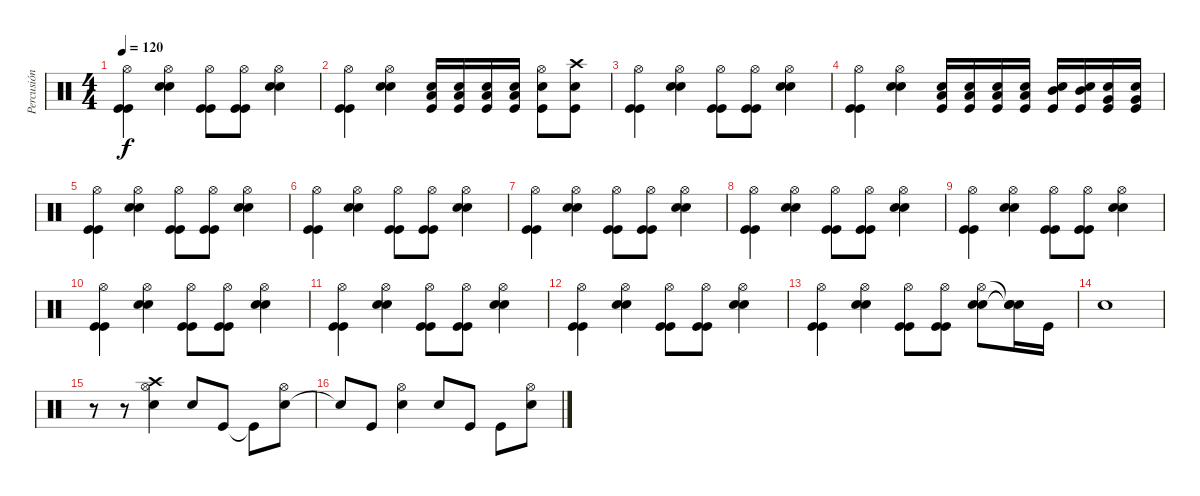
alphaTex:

\track ("Percusión" "Percusión") {instrument percussion}
\staff {score}
\articulation defaults
\ts (4 4)
\tempo 120
\clef neutral
\ks c
("Kick (hit)" "Kick (hit)" "Hi-Hat (open)").4{dy f} ("Electric Snare (hit)" "Snare (hit) 2" "Hi-Hat (open)").4 ("Kick (hit)" "Kick (hit)" "Hi-Hat (open)").8 ("Kick (hit)" "Kick (hit)" "Hi-Hat (open)").8 ("Electric Snare (hit)" "Snare (hit) 2" "Hi-Hat (open)").4 |
("Kick (hit)" "Kick (hit)" "Hi-Hat (open)").4 ("Electric Snare (hit)" "Snare (hit) 2" "Hi-Hat (open)").4 ("Kick (hit)" "Low Tom (hit)" "Snare (hit) 2").16 ("Kick (hit)" "Low Tom (hit)" "Snare (hit) 2").16 ("Kick (hit)" "Low Tom (hit)" "Snare (hit) 2").16 ("Kick (hit)" "Low Tom (hit)" "Snare (hit) 2").16 ("Electric Snare (hit)" "Kick (hit)" "Hi-Hat (open)").8 ("Electric Snare (hit)" "Kick (hit)" "Crash high (hit)").8 |
("Kick (hit)" "Kick (hit)" "Hi-Hat (open)").4 ("Electric Snare (hit)" "Snare (hit) 2" "Hi-Hat (open)").4 ("Kick (hit)" "Kick (hit)" "Hi-Hat (open)").8 ("Kick (hit)" "Kick (hit)" "Hi-Hat (open)").8 ("Electric Snare (hit)" "Snare (hit) 2" "Hi-Hat (open)").4 |
("Kick (hit)" "Kick (hit)" "Hi-Hat (open)").4 ("Electric Snare (hit)" "Snare (hit) 2" "Hi-Hat (open)").4 ("Kick (hit)" "Low Tom (hit)" "Snare (hit) 2").16 ("Kick (hit)" "Low Tom (hit)" "Snare (hit) 2").16 ("Kick (hit)" "Low Tom (hit)" "Snare (hit) 2").16 ("Kick (hit)" "Low Tom (hit)" "Snare (hit) 2").16 ("Kick (hit)" "Mid Tom (hit)" "Snare (hit) 2").16 ("Kick (hit)" "Mid Tom (hit)" "Snare (hit) 2").16 ("Kick (hit)" "Very Low Tom (hit)" "Snare (hit) 2").16 ("Kick (hit)" "Very Low Tom (hit)" "Snare (hit) 2").16 |
("Kick (hit)" "Kick (hit)" "Hi-Hat (open)").4{volume 12} ("Electric Snare (hit)" "Snare (hit) 2" "Hi-Hat (open)").4 ("Kick (hit)" "Kick (hit)" "Hi-Hat (open)").8 ("Kick (hit)" "Kick (hit)" "Hi-Hat (open)").8 ("Electric Snare (hit)" "Snare (hit) 2" "Hi-Hat (open)").4 |
("Kick (hit)" "Kick (hit)" "Hi-Hat (open)").4 ("Electric Snare (hit)" "Snare (hit) 2" "Hi-Hat (open)").4 ("Kick (hit)" "Kick (hit)" "Hi-Hat (open)").8 ("Kick (hit)" "Kick (hit)" "Hi-Hat (open)").8 ("Electric Snare (hit)" "Snare (hit) 2" "Hi-Hat (open)").4 |
("Kick (hit)" "Kick (hit)" "Hi-Hat (open)").4 ("Electric Snare (hit)" "Snare (hit) 2" "Hi-Hat (open)").4 ("Kick (hit)" "Kick (hit)" "Hi-Hat (open)").8 ("Kick (hit)" "Kick (hit)" "Hi-Hat (open)").8 ("Electric Snare (hit)" "Snare (hit) 2" "Hi-Hat (open)").4 |
("Kick (hit)" "Kick (hit)" "Hi-Hat (open)").4 ("Electric Snare (hit)" "Snare (hit) 2" "Hi-Hat (open)").4 ("Kick (hit)" "Kick (hit)" "Hi-Hat (open)").8 ("Kick (hit)" "Kick (hit)" "Hi-Hat (open)").8 ("Electric Snare (hit)" "Snare (hit) 2" "Hi-Hat (open)").4 |
("Kick (hit)" "Kick (hit)" "Hi-Hat (open)").4 ("Electric Snare (hit)" "Snare (hit) 2" "Hi-Hat (open)").4 ("Kick (hit)" "Kick (hit)" "Hi-Hat (open)").8 ("Kick (hit)" "Kick (hit)" "Hi-Hat (open)").8 ("Electric Snare (hit)" "Snare (hit) 2" "Hi-Hat (open)").4 |
("Kick (hit)" "Kick (hit)" "Hi-Hat (open)").4 ("Electric Snare (hit)" "Snare (hit) 2" "Hi-Hat (open)").4 ("Kick (hit)" "Kick (hit)" "Hi-Hat (open)").8 ("Kick (hit)" "Kick (hit)" "Hi-Hat (open)").8 ("Electric Snare (hit)" "Snare (hit) 2" "Hi-Hat (open)").4 |
("Kick (hit)" "Kick (hit)" "Hi-Hat (open)").4 ("Electric Snare (hit)" "Snare (hit) 2" "Hi-Hat (open)").4 ("Kick (hit)" "Kick (hit)" "Hi-Hat (open)").8 ("Kick (hit)" "Kick (hit)" "Hi-Hat (open)").8 ("Electric Snare (hit)" "Snare (hit) 2" "Hi-Hat (open)").4 |
("Kick (hit)" "Kick (hit)" "Hi-Hat (open)").4 ("Electric Snare (hit)" "Snare (hit) 2" "Hi-Hat (open)").4 ("Kick (hit)" "Kick (hit)" "Hi-Hat (open)").8 ("Kick (hit)" "Kick (hit)" "Hi-Hat (open)").8 ("Electric Snare (hit)" "Snare (hit) 2" "Hi-Hat (open)").4 |
("Kick (hit)" "Kick (hit)" "Hi-Hat (open)").4 ("Electric Snare (hit)" "Snare (hit) 2" "Hi-Hat (open)").4 ("Kick (hit)" "Kick (hit)" "Hi-Hat (open)").8 ("Kick (hit)" "Kick (hit)" "Hi-Hat (open)").8 ("Electric Snare (hit)" "Snare (hit) 2" "Hi-Hat (open)").8 ("Snare (hit)"{t} "Snare (hit)"{t} "Snare (hit)"{t}).16 "Kick (hit)".16 |
"Electric Snare (hit)".1 |
r.8 r.8 ("Electric Snare (hit)" "Hi-Hat (open)" "Crash high (hit)").4 "Snare (hit) 2".8 "Kick (hit)".8 "Kick (hit)"{t}.8 ("Electric Snare (hit)" "Hi-Hat (open)").8 |
"Snare (hit)"{t}.8 "Kick (hit)".8 ("Electric Snare (hit)" "Hi-Hat (open)").4 "Snare (hit) 2".8 "Kick (hit)".8 "Kick (hit)".8 ("Electric Snare (hit)" "Hi-Hat (open)").8
